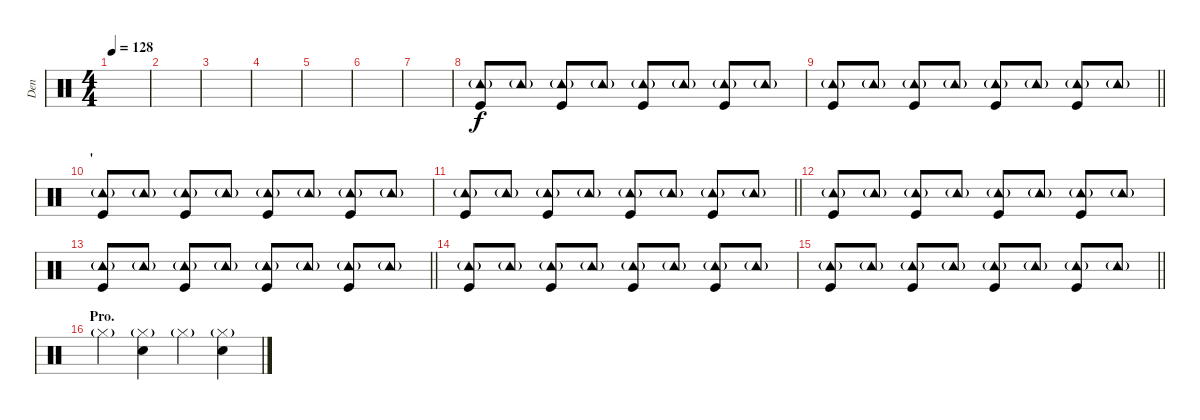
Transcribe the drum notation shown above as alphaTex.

\track ("Den" "Den") {instrument percussion}
\staff
\articulation defaults
\ts (4 4)
\tempo 128
\clef neutral
\ks c
|
|
|
|
|
|
|
("Tambourine (hit)"{g} "Kick (hit)").8 "Tambourine (hit)"{g}.8 ("Tambourine (hit)"{g} "Kick (hit)").8 "Tambourine (hit)"{g}.8 ("Tambourine (hit)"{g} "Kick (hit)").8 "Tambourine (hit)"{g}.8 ("Tambourine (hit)"{g} "Kick (hit)").8 "Tambourine (hit)"{g}.8 |
\barLineRight lightlight
("Tambourine (hit)"{g} "Kick (hit)").8 "Tambourine (hit)"{g}.8 ("Tambourine (hit)"{g} "Kick (hit)").8 "Tambourine (hit)"{g}.8 ("Tambourine (hit)"{g} "Kick (hit)").8 "Tambourine (hit)"{g}.8 ("Tambourine (hit)"{g} "Kick (hit)").8 "Tambourine (hit)"{g}.8 |
\section ("" "'")
("Tambourine (hit)"{g} "Kick (hit)").8 "Tambourine (hit)"{g}.8 ("Tambourine (hit)"{g} "Kick (hit)").8 "Tambourine (hit)"{g}.8 ("Tambourine (hit)"{g} "Kick (hit)").8 "Tambourine (hit)"{g}.8 ("Tambourine (hit)"{g} "Kick (hit)").8 "Tambourine (hit)"{g}.8 |
\barLineRight lightlight
("Tambourine (hit)"{g} "Kick (hit)").8 "Tambourine (hit)"{g}.8 ("Tambourine (hit)"{g} "Kick (hit)").8 "Tambourine (hit)"{g}.8 ("Tambourine (hit)"{g} "Kick (hit)").8 "Tambourine (hit)"{g}.8 ("Tambourine (hit)"{g} "Kick (hit)").8 "Tambourine (hit)"{g}.8 |
("Tambourine (hit)"{g} "Kick (hit)").8 "Tambourine (hit)"{g}.8 ("Tambourine (hit)"{g} "Kick (hit)").8 "Tambourine (hit)"{g}.8 ("Tambourine (hit)"{g} "Kick (hit)").8 "Tambourine (hit)"{g}.8 ("Tambourine (hit)"{g} "Kick (hit)").8 "Tambourine (hit)"{g}.8 |
\barLineRight lightlight
("Tambourine (hit)"{g} "Kick (hit)").8 "Tambourine (hit)"{g}.8 ("Tambourine (hit)"{g} "Kick (hit)").8 "Tambourine (hit)"{g}.8 ("Tambourine (hit)"{g} "Kick (hit)").8 "Tambourine (hit)"{g}.8 ("Tambourine (hit)"{g} "Kick (hit)").8 "Tambourine (hit)"{g}.8 |
("Tambourine (hit)"{g} "Kick (hit)").8 "Tambourine (hit)"{g}.8 ("Tambourine (hit)"{g} "Kick (hit)").8 "Tambourine (hit)"{g}.8 ("Tambourine (hit)"{g} "Kick (hit)").8 "Tambourine (hit)"{g}.8 ("Tambourine (hit)"{g} "Kick (hit)").8 "Tambourine (hit)"{g}.8 |
\barLineRight lightlight
("Tambourine (hit)"{g} "Kick (hit)").8 "Tambourine (hit)"{g}.8 ("Tambourine (hit)"{g} "Kick (hit)").8 "Tambourine (hit)"{g}.8 ("Tambourine (hit)"{g} "Kick (hit)").8 "Tambourine (hit)"{g}.8 ("Tambourine (hit)"{g} "Kick (hit)").8 "Tambourine (hit)"{g}.8 |
\section ("" "Pro.")
"Hi-Hat (closed)"{g}.4 ("Hi-Hat (closed)"{g} "Snare (hit) 2").4 "Hi-Hat (closed)"{g}.4 ("Hi-Hat (closed)"{g} "Snare (hit) 2").4
